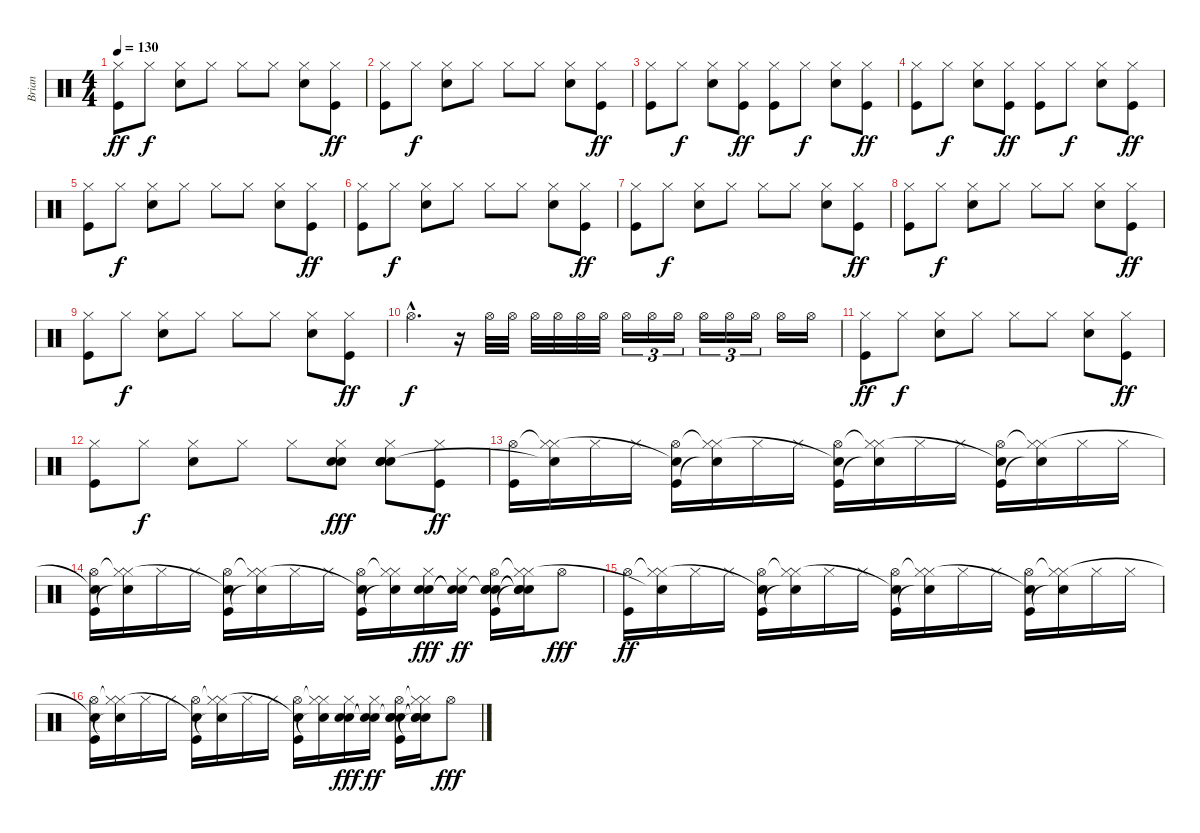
\track ("Brian" "Brian") {instrument percussion}
\staff {score}
\articulation defaults
\ts (4 4)
\tempo 130
\clef neutral
\ks c
("Hi-Hat (closed)" "Kick (hit)").8{dy ff} "Hi-Hat (closed)".8{dy f} ("Hi-Hat (closed)" "Electric Snare (hit)").8 "Hi-Hat (closed)".8 "Hi-Hat (closed)".8 "Hi-Hat (closed)".8 ("Hi-Hat (closed)" "Electric Snare (hit)").8 ("Hi-Hat (closed)" "Kick (hit)").8{dy ff} |
("Hi-Hat (closed)" "Kick (hit)").8 "Hi-Hat (closed)".8{dy f} ("Hi-Hat (closed)" "Electric Snare (hit)").8 "Hi-Hat (closed)".8 "Hi-Hat (closed)".8 "Hi-Hat (closed)".8 ("Hi-Hat (closed)" "Electric Snare (hit)").8 ("Hi-Hat (closed)" "Kick (hit)").8{dy ff} |
("Hi-Hat (closed)" "Kick (hit)").8 "Hi-Hat (closed)".8{dy f} ("Hi-Hat (closed)" "Electric Snare (hit)").8 ("Hi-Hat (closed)" "Kick (hit)").8{dy ff} ("Hi-Hat (closed)" "Kick (hit)").8 "Hi-Hat (closed)".8{dy f} ("Hi-Hat (closed)" "Electric Snare (hit)").8 ("Hi-Hat (closed)" "Kick (hit)").8{dy ff} |
("Hi-Hat (closed)" "Kick (hit)").8 "Hi-Hat (closed)".8{dy f} ("Hi-Hat (closed)" "Electric Snare (hit)").8 ("Hi-Hat (closed)" "Kick (hit)").8{dy ff} ("Hi-Hat (closed)" "Kick (hit)").8 "Hi-Hat (closed)".8{dy f} ("Hi-Hat (closed)" "Electric Snare (hit)").8 ("Hi-Hat (closed)" "Kick (hit)").8{dy ff} |
("Hi-Hat (closed)" "Kick (hit)").8 "Hi-Hat (closed)".8{dy f} ("Hi-Hat (closed)" "Electric Snare (hit)").8 "Hi-Hat (closed)".8 "Hi-Hat (closed)".8 "Hi-Hat (closed)".8 ("Hi-Hat (closed)" "Electric Snare (hit)").8 ("Hi-Hat (closed)" "Kick (hit)").8{dy ff} |
("Hi-Hat (closed)" "Kick (hit)").8 "Hi-Hat (closed)".8{dy f} ("Hi-Hat (closed)" "Electric Snare (hit)").8 "Hi-Hat (closed)".8 "Hi-Hat (closed)".8 "Hi-Hat (closed)".8 ("Hi-Hat (closed)" "Electric Snare (hit)").8 ("Hi-Hat (closed)" "Kick (hit)").8{dy ff} |
("Hi-Hat (closed)" "Kick (hit)").8 "Hi-Hat (closed)".8{dy f} ("Hi-Hat (closed)" "Electric Snare (hit)").8 "Hi-Hat (closed)".8 "Hi-Hat (closed)".8 "Hi-Hat (closed)".8 ("Hi-Hat (closed)" "Electric Snare (hit)").8 ("Hi-Hat (closed)" "Kick (hit)").8{dy ff} |
("Hi-Hat (closed)" "Kick (hit)").8 "Hi-Hat (closed)".8{dy f} ("Hi-Hat (closed)" "Electric Snare (hit)").8 "Hi-Hat (closed)".8 "Hi-Hat (closed)".8 "Hi-Hat (closed)".8 ("Hi-Hat (closed)" "Electric Snare (hit)").8 ("Hi-Hat (closed)" "Kick (hit)").8{dy ff} |
("Hi-Hat (closed)" "Kick (hit)").8 "Hi-Hat (closed)".8{dy f} ("Hi-Hat (closed)" "Electric Snare (hit)").8 "Hi-Hat (closed)".8 "Hi-Hat (closed)".8 "Hi-Hat (closed)".8 ("Hi-Hat (closed)" "Electric Snare (hit)").8 ("Hi-Hat (closed)" "Kick (hit)").8{dy ff} |
"Hi-Hat (open)"{hac}.4{d dy f} r.16 "Hi-Hat (open)".32 "Hi-Hat (open)".32 "Hi-Hat (open)".32 "Hi-Hat (open)".32 "Hi-Hat (open)".32 "Hi-Hat (open)".32 "Hi-Hat (open)".16{tu (3 2)} "Hi-Hat (open)".16{tu (3 2)} "Hi-Hat (open)".16{tu (3 2)} "Hi-Hat (open)".16{tu (3 2)} "Hi-Hat (open)".16{tu (3 2)} "Hi-Hat (open)".16{tu (3 2)} "Hi-Hat (open)".16 "Hi-Hat (open)".16 |
("Hi-Hat (closed)" "Kick (hit)").8{dy ff} "Hi-Hat (closed)".8{dy f} ("Hi-Hat (closed)" "Electric Snare (hit)").8 "Hi-Hat (closed)".8 "Hi-Hat (closed)".8 "Hi-Hat (closed)".8 ("Hi-Hat (closed)" "Electric Snare (hit)").8 ("Hi-Hat (closed)" "Kick (hit)").8{dy ff} |
("Hi-Hat (closed)" "Kick (hit)").8 "Hi-Hat (closed)".8{dy f} ("Hi-Hat (closed)" "Electric Snare (hit)").8 "Hi-Hat (closed)".8 "Hi-Hat (closed)".8 ("Hand Clap (hit)" "Hi-Hat (closed)" "Hand Clap (hit)").8{dy fff} ("Hand Clap (hit)" "Hi-Hat (closed)" "Hand Clap (hit)" "Electric Snare (hit)").8 ("Hi-Hat (closed)" "Kick (hit)").8{dy ff} |
("Hi-Hat (open)" "Kick (hit)").16 ("Hi-Hat (closed)"{t} "Hi-Hat (closed)" "Snare (hit)"{t}).16 "Hi-Hat (closed)".16 "Hi-Hat (closed)".16 ("Hi-Hat (open)" "Snare (hit)"{t} "Kick (hit)").16 ("Hi-Hat (closed)"{t} "Hi-Hat (closed)" "Snare (hit)"{t}).16 "Hi-Hat (closed)".16 "Hi-Hat (closed)".16 ("Hi-Hat (open)" "Snare (hit)"{t} "Kick (hit)").16 ("Hi-Hat (closed)"{t} "Hi-Hat (closed)" "Snare (hit)"{t}).16 "Hi-Hat (closed)".16 "Hi-Hat (closed)".16 ("Hi-Hat (open)" "Snare (hit)"{t} "Kick (hit)").16 ("Hi-Hat (closed)"{t} "Hi-Hat (closed)" "Snare (hit)"{t}).16 "Hi-Hat (closed)".16 "Hi-Hat (closed)".16 |
("Hi-Hat (open)" "Snare (hit)"{t} "Kick (hit)").16 ("Hi-Hat (closed)"{t} "Hi-Hat (closed)" "Snare (hit)"{t}).16 "Hi-Hat (closed)".16 "Hi-Hat (closed)".16 ("Hi-Hat (open)" "Snare (hit)"{t} "Kick (hit)").16 ("Hi-Hat (closed)"{t} "Hi-Hat (closed)" "Snare (hit)"{t}).16 "Hi-Hat (closed)".16 "Hi-Hat (closed)".16 ("Hi-Hat (open)" "Snare (hit)"{t} "Kick (hit)").16 ("Hi-Hat (closed)"{t} "Hi-Hat (closed)" "Snare (hit)"{t}).16 ("Hand Clap (hit)" "Hi-Hat (closed)" "Hand Clap (hit)").16{dy fff} ("Snare (hit)"{t} "Hi-Hat (closed)" "Snare (hit)"{t}).16{dy ff} ("Hand Clap (hit)" "Hi-Hat (open)" "Snare (hit)"{t} "Hand Clap (hit)" "Kick (hit)").16 ("Snare (hit)"{t} "Hi-Hat (closed)"{t} "Hi-Hat (closed)" "Snare (hit)"{t} "Snare (hit)"{t}).16 "Hi-Hat (open)".8{dy fff} |
("Hi-Hat (open)" "Kick (hit)").16{dy ff} ("Hi-Hat (closed)"{t} "Hi-Hat (closed)" "Snare (hit)"{t}).16 "Hi-Hat (closed)".16 "Hi-Hat (closed)".16 ("Hi-Hat (open)" "Snare (hit)"{t} "Kick (hit)").16 ("Hi-Hat (closed)"{t} "Hi-Hat (closed)" "Snare (hit)"{t}).16 "Hi-Hat (closed)".16 "Hi-Hat (closed)".16 ("Hi-Hat (open)" "Snare (hit)"{t} "Kick (hit)").16 ("Hi-Hat (closed)"{t} "Hi-Hat (closed)" "Snare (hit)"{t}).16 "Hi-Hat (closed)".16 "Hi-Hat (closed)".16 ("Hi-Hat (open)" "Snare (hit)"{t} "Kick (hit)").16 ("Hi-Hat (closed)"{t} "Hi-Hat (closed)" "Snare (hit)"{t}).16 "Hi-Hat (closed)".16 "Hi-Hat (closed)".16 |
("Hi-Hat (open)" "Snare (hit)"{t} "Kick (hit)").16 ("Hi-Hat (closed)"{t} "Hi-Hat (closed)" "Snare (hit)"{t}).16 "Hi-Hat (closed)".16 "Hi-Hat (closed)".16 ("Hi-Hat (open)" "Snare (hit)"{t} "Kick (hit)").16 ("Hi-Hat (closed)"{t} "Hi-Hat (closed)" "Snare (hit)"{t}).16 "Hi-Hat (closed)".16 "Hi-Hat (closed)".16 ("Hi-Hat (open)" "Snare (hit)"{t} "Kick (hit)").16 ("Hi-Hat (closed)"{t} "Hi-Hat (closed)" "Snare (hit)"{t}).16 ("Hand Clap (hit)" "Hi-Hat (closed)" "Hand Clap (hit)").16{dy fff} ("Snare (hit)"{t} "Hi-Hat (closed)" "Snare (hit)"{t}).16{dy ff} ("Hand Clap (hit)" "Hi-Hat (open)" "Snare (hit)"{t} "Hand Clap (hit)" "Kick (hit)").16 ("Snare (hit)"{t} "Hi-Hat (closed)"{t} "Hi-Hat (closed)" "Snare (hit)"{t} "Snare (hit)"{t}).16 "Hi-Hat (open)".8{dy fff}
